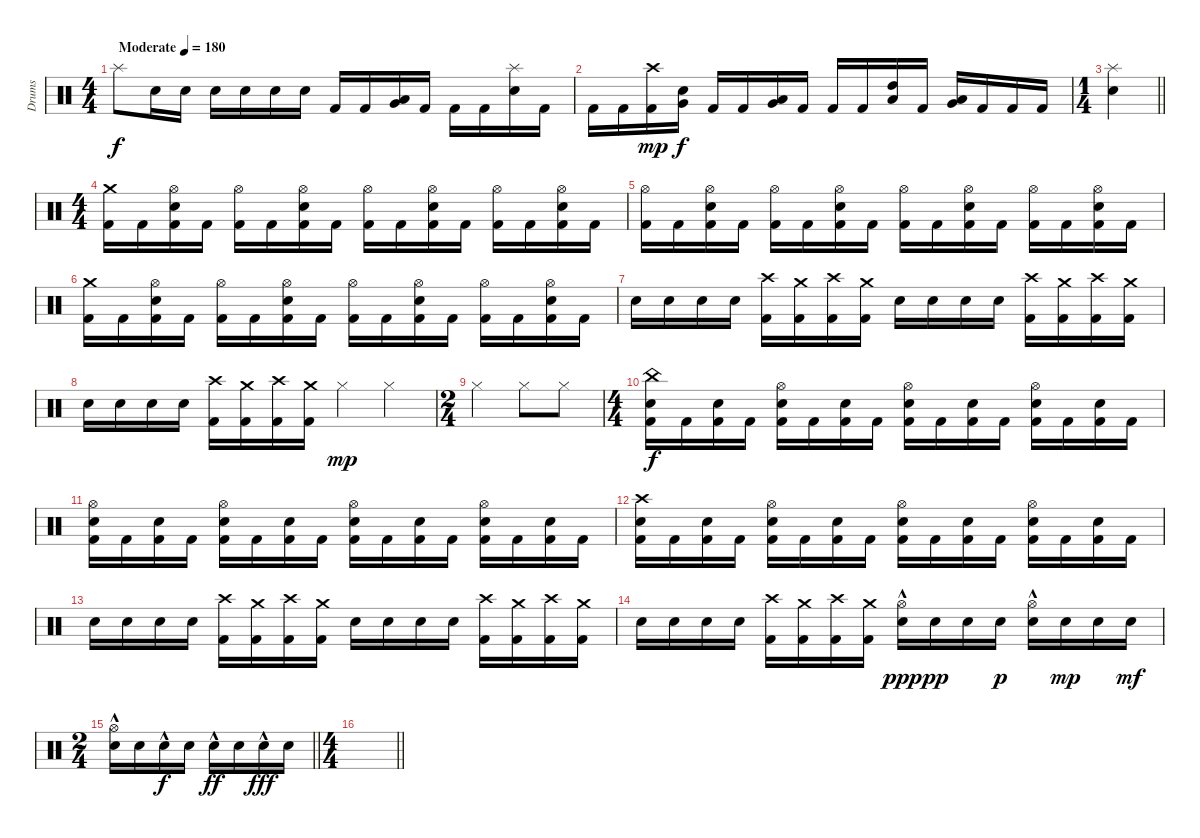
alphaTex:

\track ("Drums" "Drums") {instrument percussion}
\staff {score}
\articulation defaults
\ts (4 4)
\tempo (180 "Moderate")
\clef neutral
\ks c "Splash (hit)".8{dy f} "Electric Snare (hit)".16 "Electric Snare (hit)".16 "Electric Snare (hit)".16 "Electric Snare (hit)".16 "Electric Snare (hit)".16 "Electric Snare (hit)".16 "Kick (hit) 2".16 "Kick (hit) 2".16
("Low Tom (hit)" "Very Low Tom (hit)").16 "Kick (hit) 2".16 "Kick (hit) 2".16 "Kick (hit) 2".16 ("Splash (hit)" "Electric Snare (hit)").16 "Kick (hit) 2".16 |
"Kick (hit) 2".16 "Kick (hit) 2".16 ("Crash high (hit)" "Kick (hit) 2").16{dy mp} ("Electric Snare (hit)" "Very Low Tom (hit)").16{dy f} "Kick (hit) 2".16 "Kick (hit) 2".16 ("Very Low Tom (hit)" "Low Floor Tom (hit)").16 "Kick (hit) 2".16 "Kick (hit) 2".16 "Kick (hit) 2".16 ("High Tom (hit)" "Low Tom (hit)").16 "Kick (hit) 2".16 ("Very Low Tom (hit)" "Low Floor Tom (hit)").16 "Kick (hit) 2".16 "Kick (hit) 2".16 "Kick (hit) 2".16 |
\ts (1 4)
\barLineRight lightlight
("Splash (hit)" "Electric Snare (hit)").4 |
\ts (4 4)
("Crash medium (hit)" "Kick (hit) 2").16 "Kick (hit) 2".16 ("Hi-Hat (open)" "Electric Snare (hit)" "Kick (hit) 2").16 "Kick (hit) 2".16 ("Hi-Hat (open)" "Kick (hit) 2").16 "Kick (hit) 2".16 ("Hi-Hat (open)" "Electric Snare (hit)" "Kick (hit) 2").16 "Kick (hit) 2".16 ("Hi-Hat (open)" "Kick (hit) 2").16 "Kick (hit) 2".16 ("Hi-Hat (open)" "Electric Snare (hit)" "Kick (hit) 2").16 "Kick (hit) 2".16 ("Hi-Hat (open)" "Kick (hit) 2").16 "Kick (hit) 2".16 ("Hi-Hat (open)" "Electric Snare (hit)" "Kick (hit) 2").16 "Kick (hit) 2".16 |
("Hi-Hat (open)" "Kick (hit) 2").16 "Kick (hit) 2".16 ("Hi-Hat (open)" "Electric Snare (hit)" "Kick (hit) 2").16 "Kick (hit) 2".16 ("Hi-Hat (open)" "Kick (hit) 2").16 "Kick (hit) 2".16 ("Hi-Hat (open)" "Electric Snare (hit)" "Kick (hit) 2").16 "Kick (hit) 2".16 ("Hi-Hat (open)" "Kick (hit) 2").16 "Kick (hit) 2".16 ("Hi-Hat (open)" "Electric Snare (hit)" "Kick (hit) 2").16 "Kick (hit) 2".16 ("Hi-Hat (open)" "Kick (hit) 2").16 "Kick (hit) 2".16 ("Hi-Hat (open)" "Electric Snare (hit)" "Kick (hit) 2").16 "Kick (hit) 2".16 |
("Crash medium (hit)" "Kick (hit) 2").16 "Kick (hit) 2".16 ("Hi-Hat (open)" "Electric Snare (hit)" "Kick (hit) 2").16 "Kick (hit) 2".16 ("Hi-Hat (open)" "Kick (hit) 2").16 "Kick (hit) 2".16 ("Hi-Hat (open)" "Electric Snare (hit)" "Kick (hit) 2").16 "Kick (hit) 2".16 ("Hi-Hat (open)" "Kick (hit) 2").16 "Kick (hit) 2".16 ("Hi-Hat (open)" "Electric Snare (hit)" "Kick (hit) 2").16 "Kick (hit) 2".16 ("Hi-Hat (open)" "Kick (hit) 2").16 "Kick (hit) 2".16 ("Hi-Hat (open)" "Electric Snare (hit)" "Kick (hit) 2").16 "Kick (hit) 2".16 |
"Electric Snare (hit)".16 "Electric Snare (hit)".16 "Electric Snare (hit)".16 "Electric Snare (hit)".16 ("Crash high (hit)" "Kick (hit) 2").16 ("Crash medium (hit)" "Kick (hit) 2").16 ("Crash high (hit)" "Kick (hit) 2").16 ("Crash medium (hit)" "Kick (hit) 2").16 "Electric Snare (hit)".16 "Electric Snare (hit)".16 "Electric Snare (hit)".16 "Electric Snare (hit)".16 ("Crash high (hit)" "Kick (hit) 2").16 ("Crash medium (hit)" "Kick (hit) 2").16 ("Crash high (hit)" "Kick (hit) 2").16 ("Crash medium (hit)" "Kick (hit) 2").16 |
"Electric Snare (hit)".16 "Electric Snare (hit)".16 "Electric Snare (hit)".16 "Electric Snare (hit)".16 ("Crash high (hit)" "Kick (hit) 2").16 ("Crash medium (hit)" "Kick (hit) 2").16 ("Crash high (hit)" "Kick (hit) 2").16 ("Crash medium (hit)" "Kick (hit) 2").16 "Hi-Hat (closed)".4{dy mp} "Hi-Hat (closed)".4 |
\ts (2 4)
"Hi-Hat (closed)".4 "Hi-Hat (closed)".8 "Hi-Hat (closed)".8 |
\ts (4 4)
("China (hit)" "Electric Snare (hit)" "Kick (hit) 2").16{dy f} "Kick (hit) 2".16 ("Electric Snare (hit)" "Kick (hit) 2").16 "Kick (hit) 2".16 ("Hi-Hat (open)" "Electric Snare (hit)" "Kick (hit) 2").16 "Kick (hit) 2".16 ("Electric Snare (hit)" "Kick (hit) 2").16 "Kick (hit) 2".16 ("Hi-Hat (open)" "Electric Snare (hit)" "Kick (hit) 2").16 "Kick (hit) 2".16 ("Electric Snare (hit)" "Kick (hit) 2").16 "Kick (hit) 2".16 ("Hi-Hat (open)" "Electric Snare (hit)" "Kick (hit) 2").16 "Kick (hit) 2".16 ("Electric Snare (hit)" "Kick (hit) 2").16 "Kick (hit) 2".16 |
("Hi-Hat (open)" "Electric Snare (hit)" "Kick (hit) 2").16 "Kick (hit) 2".16 ("Electric Snare (hit)" "Kick (hit) 2").16 "Kick (hit) 2".16 ("Hi-Hat (open)" "Electric Snare (hit)" "Kick (hit) 2").16 "Kick (hit) 2".16 ("Electric Snare (hit)" "Kick (hit) 2").16 "Kick (hit) 2".16 ("Hi-Hat (open)" "Electric Snare (hit)" "Kick (hit) 2").16 "Kick (hit) 2".16 ("Electric Snare (hit)" "Kick (hit) 2").16 "Kick (hit) 2".16 ("Hi-Hat (open)" "Electric Snare (hit)" "Kick (hit) 2").16 "Kick (hit) 2".16 ("Electric Snare (hit)" "Kick (hit) 2").16 "Kick (hit) 2".16 |
("Crash high (hit)" "Electric Snare (hit)" "Kick (hit) 2").16 "Kick (hit) 2".16 ("Electric Snare (hit)" "Kick (hit) 2").16 "Kick (hit) 2".16 ("Hi-Hat (open)" "Electric Snare (hit)" "Kick (hit) 2").16 "Kick (hit) 2".16 ("Electric Snare (hit)" "Kick (hit) 2").16 "Kick (hit) 2".16 ("Hi-Hat (open)" "Electric Snare (hit)" "Kick (hit) 2").16 "Kick (hit) 2".16 ("Electric Snare (hit)" "Kick (hit) 2").16 "Kick (hit) 2".16 ("Hi-Hat (open)" "Electric Snare (hit)" "Kick (hit) 2").16 "Kick (hit) 2".16 ("Electric Snare (hit)" "Kick (hit) 2").16 "Kick (hit) 2".16 |
"Electric Snare (hit)".16 "Electric Snare (hit)".16 "Electric Snare (hit)".16 "Electric Snare (hit)".16 ("Crash high (hit)" "Kick (hit) 2").16 ("Crash medium (hit)" "Kick (hit) 2").16 ("Crash high (hit)" "Kick (hit) 2").16 ("Crash medium (hit)" "Kick (hit) 2").16 "Electric Snare (hit)".16 "Electric Snare (hit)".16 "Electric Snare (hit)".16 "Electric Snare (hit)".16 ("Crash high (hit)" "Kick (hit) 2").16 ("Crash medium (hit)" "Kick (hit) 2").16 ("Crash high (hit)" "Kick (hit) 2").16 ("Crash medium (hit)" "Kick (hit) 2").16 |
"Electric Snare (hit)".16 "Electric Snare (hit)".16 "Electric Snare (hit)".16 "Electric Snare (hit)".16 ("Crash high (hit)" "Kick (hit) 2").16 ("Crash medium (hit)" "Kick (hit) 2").16 ("Crash high (hit)" "Kick (hit) 2").16 ("Crash medium (hit)" "Kick (hit) 2").16 ("Hi-Hat (open)" "Electric Snare (hit)"{hac}).16{dy ppp} "Electric Snare (hit)".16{dy pp} "Electric Snare (hit)".16 "Electric Snare (hit)".16{dy p} ("Hi-Hat (open)" "Electric Snare (hit)"{hac}).16 "Electric Snare (hit)".16{dy mp} "Electric Snare (hit)".16 "Electric Snare (hit)".16{dy mf} |
\ts (2 4)
\barLineRight lightlight
("Hi-Hat (open)" "Electric Snare (hit)"{hac}).16 "Electric Snare (hit)".16 "Electric Snare (hit)"{hac}.16{dy f} "Electric Snare (hit)".16 "Electric Snare (hit)"{hac}.16{dy ff} "Electric Snare (hit)".16 "Electric Snare (hit)"{hac}.16{dy fff} "Electric Snare (hit)".16 |
\ts (4 4)
\barLineRight lightlight
